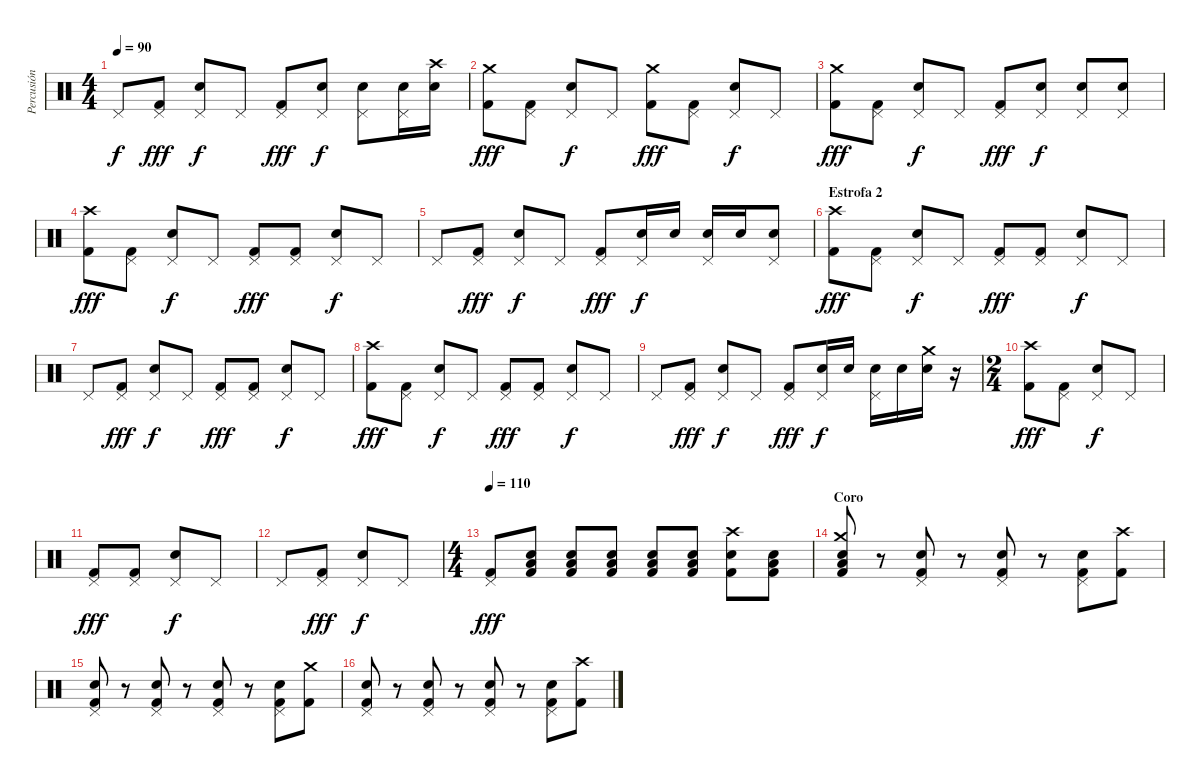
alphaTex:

\track ("Percusión" "Percusión") {instrument percussion}
\staff {score}
\articulation defaults
\ts (4 4)
\tempo 90
\clef neutral
\ks c "Pedal Hi-Hat (hit)".8{dy f}
("Pedal Hi-Hat (hit)" "Kick (hit) 2").8{dy fff} ("Pedal Hi-Hat (hit)" "Snare (hit) 2").8{dy f} "Pedal Hi-Hat (hit)".8 ("Pedal Hi-Hat (hit)" "Kick (hit) 2").8{dy fff} ("Pedal Hi-Hat (hit)" "Snare (hit) 2").8{dy f} ("Pedal Hi-Hat (hit)" "Snare (hit) 2").8 ("Pedal Hi-Hat (hit)" "Snare (hit) 2").16 ("Crash high (hit)" "Snare (hit) 2").16{balance 4} |
("Crash medium (hit)" "Kick (hit) 2").8{dy fff balance 12} ("Pedal Hi-Hat (hit)" "Kick (hit) 2").8{balance 8} ("Pedal Hi-Hat (hit)" "Snare (hit) 2").8{dy f} "Pedal Hi-Hat (hit)".8 ("Crash medium (hit)" "Kick (hit) 2").8{dy fff balance 4} ("Pedal Hi-Hat (hit)" "Kick (hit) 2").8{balance 8} ("Pedal Hi-Hat (hit)" "Snare (hit) 2").8{dy f} "Pedal Hi-Hat (hit)".8 |
("Crash medium (hit)" "Kick (hit) 2").8{dy fff balance 12} ("Pedal Hi-Hat (hit)" "Kick (hit) 2").8{balance 8} ("Pedal Hi-Hat (hit)" "Snare (hit) 2").8{dy f} "Pedal Hi-Hat (hit)".8 ("Pedal Hi-Hat (hit)" "Kick (hit) 2").8{dy fff} ("Pedal Hi-Hat (hit)" "Snare (hit) 2").8{dy f} ("Pedal Hi-Hat (hit)" "Snare (hit) 2").8 ("Pedal Hi-Hat (hit)" "Snare (hit) 2").8 |
("Crash high (hit)" "Kick (hit) 2").8{dy fff balance 4} ("Pedal Hi-Hat (hit)" "Kick (hit) 2").8{balance 8} ("Pedal Hi-Hat (hit)" "Snare (hit) 2").8{dy f} "Pedal Hi-Hat (hit)".8 ("Pedal Hi-Hat (hit)" "Kick (hit) 2").8{dy fff} ("Pedal Hi-Hat (hit)" "Kick (hit) 2").8 ("Pedal Hi-Hat (hit)" "Snare (hit) 2").8{dy f} "Pedal Hi-Hat (hit)".8 |
"Pedal Hi-Hat (hit)".8 ("Pedal Hi-Hat (hit)" "Kick (hit) 2").8{dy fff} ("Pedal Hi-Hat (hit)" "Snare (hit) 2").8{dy f} "Pedal Hi-Hat (hit)".8 ("Pedal Hi-Hat (hit)" "Kick (hit) 2").8{dy fff} ("Pedal Hi-Hat (hit)" "Snare (hit) 2").16{dy f} "Snare (hit) 2".16 ("Pedal Hi-Hat (hit)" "Snare (hit) 2").16 "Snare (hit) 2".16 ("Pedal Hi-Hat (hit)" "Snare (hit) 2").8 |
\section ("" "Estrofa 2")
("Crash high (hit)" "Kick (hit) 2").8{dy fff balance 12} ("Pedal Hi-Hat (hit)" "Kick (hit) 2").8{balance 8} ("Pedal Hi-Hat (hit)" "Snare (hit) 2").8{dy f} "Pedal Hi-Hat (hit)".8 ("Pedal Hi-Hat (hit)" "Kick (hit) 2").8{dy fff} ("Pedal Hi-Hat (hit)" "Kick (hit) 2").8 ("Pedal Hi-Hat (hit)" "Snare (hit) 2").8{dy f} "Pedal Hi-Hat (hit)".8 |
"Pedal Hi-Hat (hit)".8 ("Pedal Hi-Hat (hit)" "Kick (hit) 2").8{dy fff} ("Pedal Hi-Hat (hit)" "Snare (hit) 2").8{dy f} "Pedal Hi-Hat (hit)".8 ("Pedal Hi-Hat (hit)" "Kick (hit) 2").8{dy fff} ("Pedal Hi-Hat (hit)" "Kick (hit) 2").8 ("Pedal Hi-Hat (hit)" "Snare (hit) 2").8{dy f} "Pedal Hi-Hat (hit)".8 |
("Crash high (hit)" "Kick (hit) 2").8{dy fff balance 4} ("Pedal Hi-Hat (hit)" "Kick (hit) 2").8{balance 8} ("Pedal Hi-Hat (hit)" "Snare (hit) 2").8{dy f} "Pedal Hi-Hat (hit)".8 ("Pedal Hi-Hat (hit)" "Kick (hit) 2").8{dy fff} ("Pedal Hi-Hat (hit)" "Kick (hit) 2").8 ("Pedal Hi-Hat (hit)" "Snare (hit) 2").8{dy f} "Pedal Hi-Hat (hit)".8 |
"Pedal Hi-Hat (hit)".8 ("Pedal Hi-Hat (hit)" "Kick (hit) 2").8{dy fff} ("Pedal Hi-Hat (hit)" "Snare (hit) 2").8{dy f} "Pedal Hi-Hat (hit)".8 ("Pedal Hi-Hat (hit)" "Kick (hit) 2").8{dy fff} ("Pedal Hi-Hat (hit)" "Snare (hit) 2").16{dy f} "Snare (hit) 2".16 ("Pedal Hi-Hat (hit)" "Snare (hit) 2").16 "Snare (hit) 2".16 ("Crash medium (hit)" "Snare (hit) 2").16{balance 12} r.16 |
\ts (2 4)
("Crash high (hit)" "Kick (hit) 2").8{dy fff balance 4} ("Pedal Hi-Hat (hit)" "Kick (hit) 2").8{balance 8} ("Pedal Hi-Hat (hit)" "Snare (hit) 2").8{dy f} "Pedal Hi-Hat (hit)".8 |
("Pedal Hi-Hat (hit)" "Kick (hit) 2").8{dy fff} ("Pedal Hi-Hat (hit)" "Kick (hit) 2").8 ("Pedal Hi-Hat (hit)" "Snare (hit) 2").8{dy f} "Pedal Hi-Hat (hit)".8 |
"Pedal Hi-Hat (hit)".8 ("Pedal Hi-Hat (hit)" "Kick (hit) 2").8{dy fff} ("Pedal Hi-Hat (hit)" "Snare (hit) 2").8{dy f} "Pedal Hi-Hat (hit)".8 |
\ts (4 4)
\tempo 110
("Pedal Hi-Hat (hit)" "Kick (hit) 2").8{dy fff} ("Low Floor Tom (hit)" "Kick (hit) 2" "Snare (hit) 2").8{volume 14} ("Low Floor Tom (hit)" "Kick (hit) 2" "Snare (hit) 2").8 ("Low Floor Tom (hit)" "Kick (hit) 2" "Snare (hit) 2").8 ("Low Floor Tom (hit)" "Kick (hit) 2" "Snare (hit) 2").8 ("Low Floor Tom (hit)" "Kick (hit) 2" "Snare (hit) 2").8 ("Crash high (hit)" "Kick (hit) 2" "Snare (hit) 2").8 ("Low Floor Tom (hit)" "Kick (hit) 2" "Snare (hit) 2").8 |
\section ("" "Coro")
("Low Floor Tom (hit)" "Kick (hit) 2" "Snare (hit) 2" "Crash medium (hit)").8 r.8 ("Kick (hit) 2" "Snare (hit) 2" "Pedal Hi-Hat (hit)").8 r.8 ("Kick (hit) 2" "Snare (hit) 2" "Pedal Hi-Hat (hit)").8 r.8 ("Kick (hit) 2" "Snare (hit) 2" "Pedal Hi-Hat (hit)").8 ("Kick (hit) 2" "Crash high (hit)").8 |
("Kick (hit) 2" "Snare (hit) 2" "Pedal Hi-Hat (hit)").8 r.8 ("Kick (hit) 2" "Snare (hit) 2" "Pedal Hi-Hat (hit)").8 r.8 ("Kick (hit) 2" "Snare (hit) 2" "Pedal Hi-Hat (hit)").8 r.8 ("Kick (hit) 2" "Snare (hit) 2" "Pedal Hi-Hat (hit)").8 ("Crash medium (hit)" "Kick (hit) 2").8 |
("Kick (hit) 2" "Snare (hit) 2" "Pedal Hi-Hat (hit)").8 r.8 ("Kick (hit) 2" "Snare (hit) 2" "Pedal Hi-Hat (hit)").8 r.8 ("Kick (hit) 2" "Snare (hit) 2" "Pedal Hi-Hat (hit)").8 r.8 ("Kick (hit) 2" "Snare (hit) 2" "Pedal Hi-Hat (hit)").8 ("Crash high (hit)" "Kick (hit) 2").8
